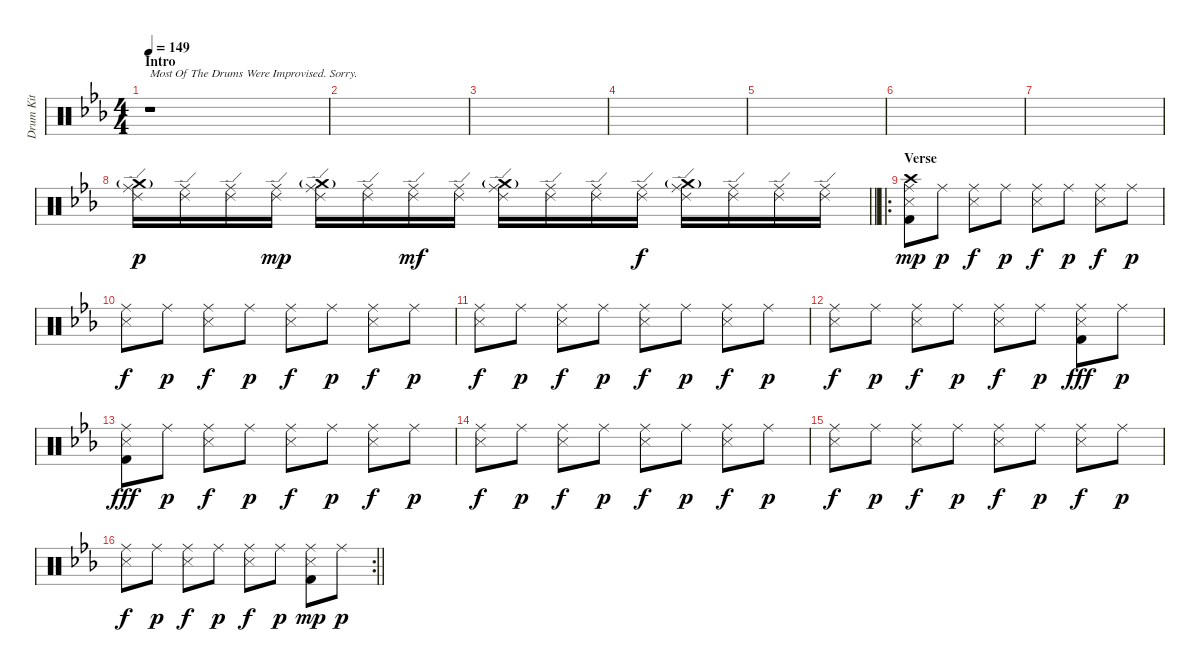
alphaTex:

\track ("Drum Kit" "Drum Kit") {instrument percussion}
\staff {score}
\articulation defaults
\ts (4 4)
\section ("" "Intro")
\tempo 149
\clef neutral
\ks cminor
r.1{txt "Most Of The Drums Were Improvised. Sorry." dy p} |
|
|
|
|
|
|
\barLineRight lightlight
("Crash medium (hit)"{g} "Ride (edge) 2" "Ride (middle)").16 ("Ride (edge) 2" "Ride (middle)").16 ("Ride (edge) 2" "Ride (middle)").16 ("Ride (edge) 2" "Ride (middle)").16{dy mp} ("Crash medium (hit)"{g} "Ride (edge) 2" "Ride (middle)").16 ("Ride (edge) 2" "Ride (middle)").16 ("Ride (edge) 2" "Ride (middle)").16{dy mf} ("Ride (edge) 2" "Ride (middle)").16 ("Crash medium (hit)"{g} "Ride (edge) 2" "Ride (middle)").16 ("Ride (edge) 2" "Ride (middle)").16 ("Ride (edge) 2" "Ride (middle)").16 ("Ride (edge) 2" "Ride (middle)").16{dy f} ("Crash medium (hit)"{g} "Ride (edge) 2" "Ride (middle)").16 ("Ride (edge) 2" "Ride (middle)").16 ("Ride (edge) 2" "Ride (middle)").16 ("Ride (edge) 2" "Ride (middle)").16 |
\ro
\section ("" "Verse")
("Crash high (hit)" "Ride (middle)" "Snare (side stick) 3" "Kick (hit) 2").8{dy mp} "Ride (middle)".8{dy p} ("Ride (middle)" "Snare (side stick) 3").8{dy f} "Ride (middle)".8{dy p} ("Ride (middle)" "Snare (side stick) 3").8{dy f} "Ride (middle)".8{dy p} ("Ride (middle)" "Snare (side stick) 3").8{dy f} "Ride (middle)".8{dy p} |
("Ride (middle)" "Snare (side stick) 3").8{dy f} "Ride (middle)".8{dy p} ("Ride (middle)" "Snare (side stick) 3").8{dy f} "Ride (middle)".8{dy p} ("Ride (middle)" "Snare (side stick) 3").8{dy f} "Ride (middle)".8{dy p} ("Ride (middle)" "Snare (side stick) 3").8{dy f} "Ride (middle)".8{dy p} |
("Ride (middle)" "Snare (side stick) 3").8{dy f} "Ride (middle)".8{dy p} ("Ride (middle)" "Snare (side stick) 3").8{dy f} "Ride (middle)".8{dy p} ("Ride (middle)" "Snare (side stick) 3").8{dy f} "Ride (middle)".8{dy p} ("Ride (middle)" "Snare (side stick) 3").8{dy f} "Ride (middle)".8{dy p} |
("Ride (middle)" "Snare (side stick) 3").8{dy f} "Ride (middle)".8{dy p} ("Ride (middle)" "Snare (side stick) 3").8{dy f} "Ride (middle)".8{dy p} ("Ride (middle)" "Snare (side stick) 3").8{dy f} "Ride (middle)".8{dy p} ("Ride (middle)" "Snare (side stick) 3" "Kick (hit) 2").8{dy fff} "Ride (middle)".8{dy p} |
("Ride (middle)" "Snare (side stick) 3" "Kick (hit) 2").8{dy fff} "Ride (middle)".8{dy p} ("Ride (middle)" "Snare (side stick) 3").8{dy f} "Ride (middle)".8{dy p} ("Ride (middle)" "Snare (side stick) 3").8{dy f} "Ride (middle)".8{dy p} ("Ride (middle)" "Snare (side stick) 3").8{dy f} "Ride (middle)".8{dy p} |
("Ride (middle)" "Snare (side stick) 3").8{dy f} "Ride (middle)".8{dy p} ("Ride (middle)" "Snare (side stick) 3").8{dy f} "Ride (middle)".8{dy p} ("Ride (middle)" "Snare (side stick) 3").8{dy f} "Ride (middle)".8{dy p} ("Ride (middle)" "Snare (side stick) 3").8{dy f} "Ride (middle)".8{dy p} |
("Ride (middle)" "Snare (side stick) 3").8{dy f} "Ride (middle)".8{dy p} ("Ride (middle)" "Snare (side stick) 3").8{dy f} "Ride (middle)".8{dy p} ("Ride (middle)" "Snare (side stick) 3").8{dy f} "Ride (middle)".8{dy p} ("Ride (middle)" "Snare (side stick) 3").8{dy f} "Ride (middle)".8{dy p} |
\rc 2
\barLineRight lightlight
("Ride (middle)" "Snare (side stick) 3").8{dy f} "Ride (middle)".8{dy p} ("Ride (middle)" "Snare (side stick) 3").8{dy f} "Ride (middle)".8{dy p} ("Ride (middle)" "Snare (side stick) 3").8{dy f} "Ride (middle)".8{dy p} ("Ride (middle)" "Snare (side stick) 3" "Kick (hit) 2").8{dy mp} "Ride (middle)".8{dy p}
